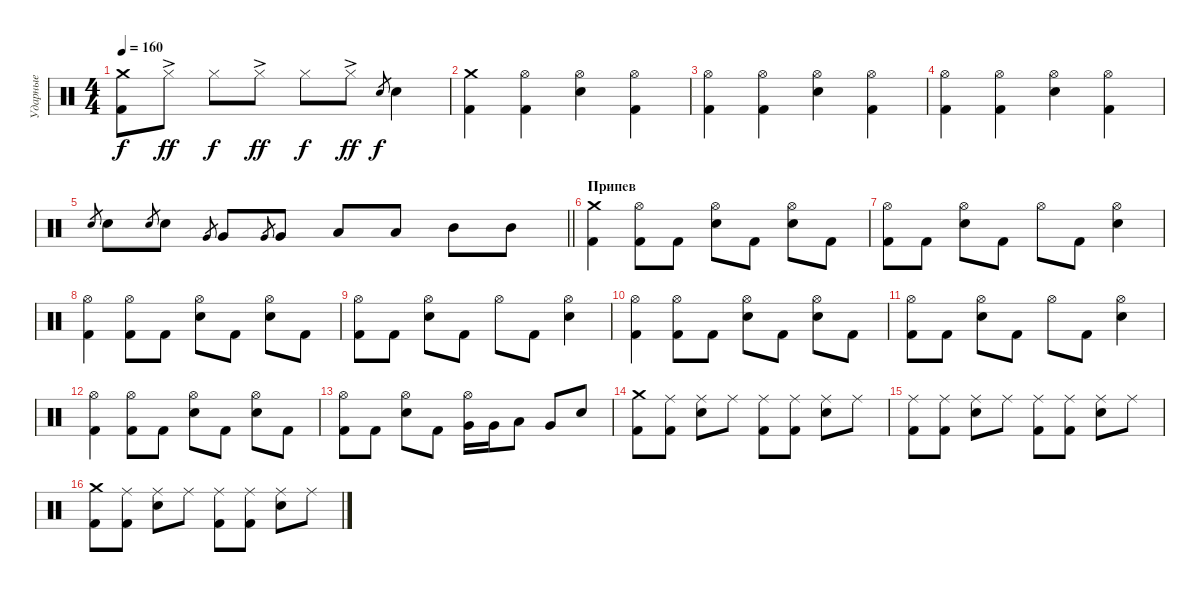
\track ("Ударные" "Ударные") {instrument percussion}
\staff {score}
\articulation defaults
\ts (4 4)
\tempo 160
\clef neutral
\ks c
("Crash medium (hit)" "Kick (hit) 2").8{dy f} "Hi-Hat (closed)"{ac}.8{dy ff} "Hi-Hat (closed)".8{dy f} "Hi-Hat (closed)"{ac}.8{dy ff} "Hi-Hat (closed)".8{dy f} "Hi-Hat (closed)"{ac}.8{dy ff} "Snare (hit) 2".8{gr dy f} "Snare (hit) 2".4 |
("Crash medium (hit)" "Kick (hit) 2").4 ("Hi-Hat (open)" "Kick (hit) 2").4 ("Hi-Hat (open)" "Snare (hit) 2").4 ("Hi-Hat (open)" "Kick (hit) 2").4 |
("Hi-Hat (open)" "Kick (hit) 2").4 ("Hi-Hat (open)" "Kick (hit) 2").4 ("Hi-Hat (open)" "Snare (hit) 2").4 ("Hi-Hat (open)" "Kick (hit) 2").4 |
("Hi-Hat (open)" "Kick (hit) 2").4 ("Hi-Hat (open)" "Kick (hit) 2").4 ("Hi-Hat (open)" "Snare (hit) 2").4 ("Hi-Hat (open)" "Kick (hit) 2").4 |
\barLineRight lightlight "Snare (hit) 2".8{gr} "Snare (hit) 2".8 "Snare (hit) 2".8{gr} "Snare (hit) 2".8 "Very Low Tom (hit)".8{gr} "Very Low Tom (hit)".8 "Very Low Tom (hit)".8{gr} "Very Low Tom (hit)".8 "Low Tom (hit)".8 "Low Tom (hit)".8 "Mid Tom (hit)".8 "Mid Tom (hit)".8
|
\section ("" "Припев")
("Crash medium (hit)" "Kick (hit) 2").4 ("Hi-Hat (open)" "Kick (hit) 2").8 "Kick (hit) 2".8 ("Hi-Hat (open)" "Snare (hit) 2").8 "Kick (hit) 2".8 ("Hi-Hat (open)" "Snare (hit) 2").8 "Kick (hit) 2".8 |
("Hi-Hat (open)" "Kick (hit) 2").8 "Kick (hit) 2".8 ("Hi-Hat (open)" "Snare (hit) 2").8 "Kick (hit) 2".8 "Hi-Hat (open)".8 "Kick (hit) 2".8 ("Hi-Hat (open)" "Snare (hit) 2").4 |
("Hi-Hat (open)" "Kick (hit) 2").4 ("Hi-Hat (open)" "Kick (hit) 2").8 "Kick (hit) 2".8 ("Hi-Hat (open)" "Snare (hit) 2").8 "Kick (hit) 2".8 ("Hi-Hat (open)" "Snare (hit) 2").8 "Kick (hit) 2".8 |
("Hi-Hat (open)" "Kick (hit) 2").8 "Kick (hit) 2".8 ("Hi-Hat (open)" "Snare (hit) 2").8 "Kick (hit) 2".8 "Hi-Hat (open)".8 "Kick (hit) 2".8 ("Hi-Hat (open)" "Snare (hit) 2").4 |
("Hi-Hat (open)" "Kick (hit) 2").4 ("Hi-Hat (open)" "Kick (hit) 2").8 "Kick (hit) 2".8 ("Hi-Hat (open)" "Snare (hit) 2").8 "Kick (hit) 2".8 ("Hi-Hat (open)" "Snare (hit) 2").8 "Kick (hit) 2".8 |
("Hi-Hat (open)" "Kick (hit) 2").8 "Kick (hit) 2".8 ("Hi-Hat (open)" "Snare (hit) 2").8 "Kick (hit) 2".8 "Hi-Hat (open)".8 "Kick (hit) 2".8 ("Hi-Hat (open)" "Snare (hit) 2").4 |
("Hi-Hat (open)" "Kick (hit) 2").4 ("Hi-Hat (open)" "Kick (hit) 2").8 "Kick (hit) 2".8 ("Hi-Hat (open)" "Snare (hit) 2").8 "Kick (hit) 2".8 ("Hi-Hat (open)" "Snare (hit) 2").8 "Kick (hit) 2".8 |
("Hi-Hat (open)" "Kick (hit) 2").8 "Kick (hit) 2".8 ("Hi-Hat (open)" "Snare (hit) 2").8 "Kick (hit) 2".8 ("Hi-Hat (open)" "Very Low Tom (hit)").16 "Very Low Tom (hit)".16 "Low Tom (hit)".8 "Very Low Tom (hit)".8 "Snare (hit) 2".8 |
("Crash medium (hit)" "Kick (hit) 2").8 ("Ride (middle)" "Kick (hit) 2").8 ("Ride (middle)" "Snare (hit) 2").8 "Ride (middle)".8 ("Ride (middle)" "Kick (hit) 2").8 ("Ride (middle)" "Kick (hit) 2").8 ("Ride (middle)" "Snare (hit) 2").8 "Ride (middle)".8 |
("Ride (middle)" "Kick (hit) 2").8 ("Ride (middle)" "Kick (hit) 2").8 ("Ride (middle)" "Snare (hit) 2").8 "Ride (middle)".8 ("Ride (middle)" "Kick (hit) 2").8 ("Ride (middle)" "Kick (hit) 2").8 ("Ride (middle)" "Snare (hit) 2").8 "Ride (middle)".8 |
("Crash medium (hit)" "Kick (hit) 2").8 ("Ride (middle)" "Kick (hit) 2").8 ("Ride (middle)" "Snare (hit) 2").8 "Ride (middle)".8 ("Ride (middle)" "Kick (hit) 2").8 ("Ride (middle)" "Kick (hit) 2").8 ("Ride (middle)" "Snare (hit) 2").8 "Ride (middle)".8
